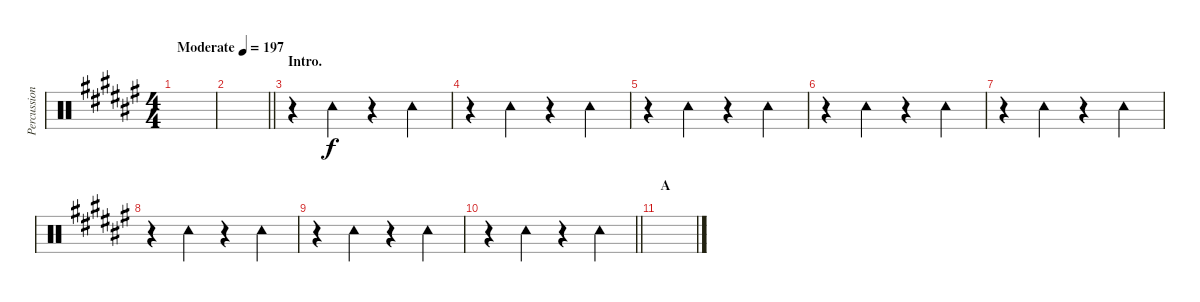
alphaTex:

\track ("Percussion (Tainaka Ritsu)" "Percussion") {instrument percussion}
\staff {score}
\articulation defaults
\ts (4 4)
\tempo (197 "Moderate")
\clef neutral
\ks f#
|
\barLineRight lightlight
|
\section ("" "Intro.")
r.4 "Tambourine (hit)".4 r.4 "Tambourine (hit)".4 |
r.4 "Tambourine (hit)".4 r.4 "Tambourine (hit)".4 |
r.4 "Tambourine (hit)".4 r.4 "Tambourine (hit)".4 |
r.4 "Tambourine (hit)".4 r.4 "Tambourine (hit)".4 |
r.4 "Tambourine (hit)".4 r.4 "Tambourine (hit)".4 |
r.4 "Tambourine (hit)".4 r.4 "Tambourine (hit)".4 |
r.4 "Tambourine (hit)".4 r.4 "Tambourine (hit)".4 |
\barLineRight lightlight
r.4 "Tambourine (hit)".4 r.4 "Tambourine (hit)".4 |
\section ("" "A")
